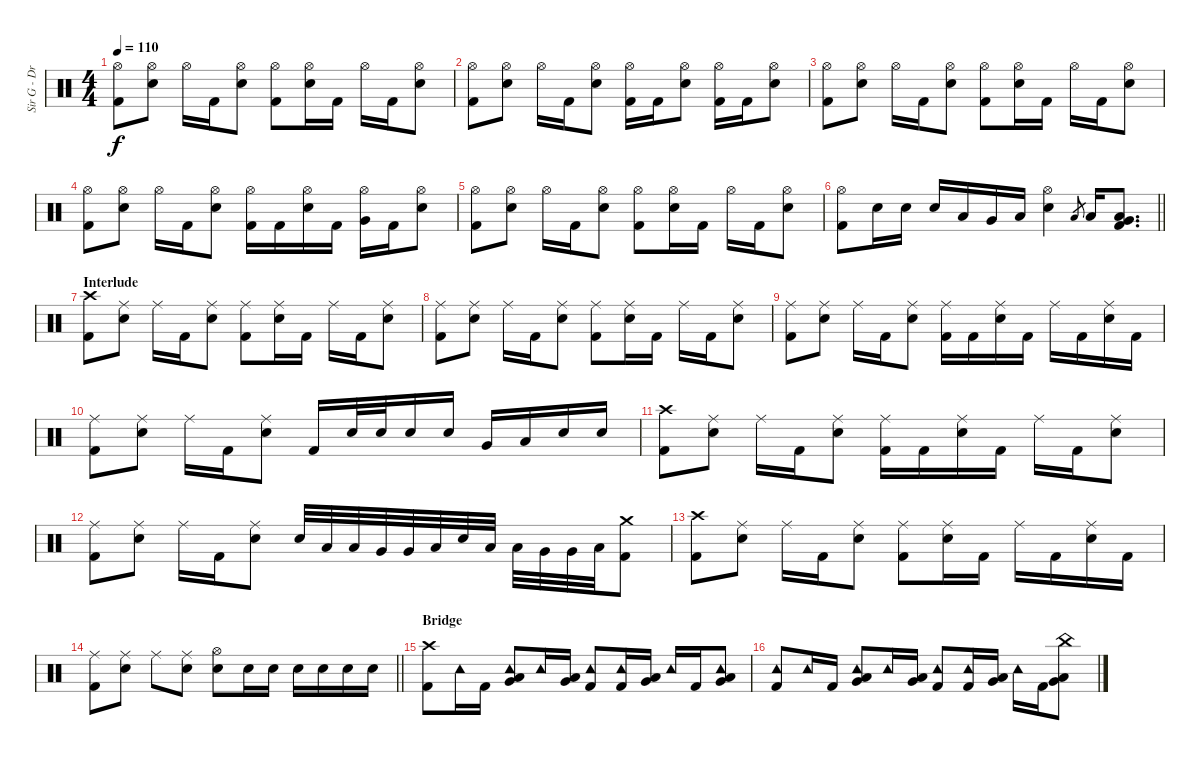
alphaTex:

\track ("Sir G - Drums" "Sir G - Dr") {instrument percussion}
\staff {score}
\articulation defaults
\ts (4 4)
\tempo 110
\clef neutral
\ks c
("Hi-Hat (open)" "Kick (hit) 2").8{dy f} ("Hi-Hat (open)" "Electric Snare (hit)").8 "Hi-Hat (open)".16 "Kick (hit) 2".16 ("Hi-Hat (open)" "Electric Snare (hit)").8 ("Hi-Hat (open)" "Kick (hit) 2").8 ("Hi-Hat (open)" "Electric Snare (hit)").16 "Kick (hit) 2".16 "Hi-Hat (open)".16 "Kick (hit) 2".16 ("Hi-Hat (open)" "Electric Snare (hit)").8 |
("Hi-Hat (open)" "Kick (hit) 2").8 ("Hi-Hat (open)" "Electric Snare (hit)").8 "Hi-Hat (open)".16 "Kick (hit) 2".16 ("Hi-Hat (open)" "Electric Snare (hit)").8 ("Hi-Hat (open)" "Kick (hit) 2").16 "Kick (hit) 2".16 ("Hi-Hat (open)" "Electric Snare (hit)").8 ("Hi-Hat (open)" "Kick (hit) 2").16 "Kick (hit) 2".16 ("Hi-Hat (open)" "Electric Snare (hit)").8 |
("Hi-Hat (open)" "Kick (hit) 2").8 ("Hi-Hat (open)" "Electric Snare (hit)").8 "Hi-Hat (open)".16 "Kick (hit) 2".16 ("Hi-Hat (open)" "Electric Snare (hit)").8 ("Hi-Hat (open)" "Kick (hit) 2").8 ("Hi-Hat (open)" "Electric Snare (hit)").16 "Kick (hit) 2".16 "Hi-Hat (open)".16 "Kick (hit) 2".16 ("Hi-Hat (open)" "Electric Snare (hit)").8 |
("Hi-Hat (open)" "Kick (hit) 2").8 ("Hi-Hat (open)" "Electric Snare (hit)").8 "Hi-Hat (open)".16 "Kick (hit) 2".16 ("Hi-Hat (open)" "Electric Snare (hit)").8 ("Hi-Hat (open)" "Kick (hit) 2").16 "Kick (hit) 2".16 ("Hi-Hat (open)" "Electric Snare (hit)").16 "Kick (hit) 2".16 ("Hi-Hat (open)" "Very Low Tom (hit)").16 "Kick (hit) 2".16 ("Hi-Hat (open)" "Electric Snare (hit)").8 |
("Hi-Hat (open)" "Kick (hit) 2").8 ("Hi-Hat (open)" "Electric Snare (hit)").8 "Hi-Hat (open)".16 "Kick (hit) 2".16 ("Hi-Hat (open)" "Electric Snare (hit)").8 ("Hi-Hat (open)" "Kick (hit) 2").8 ("Hi-Hat (open)" "Electric Snare (hit)").16 "Kick (hit) 2".16 "Hi-Hat (open)".16 "Kick (hit) 2".16 ("Hi-Hat (open)" "Electric Snare (hit)").8 |
\barLineRight lightlight
("Hi-Hat (open)" "Kick (hit) 2").8 "Electric Snare (hit)".16 "Electric Snare (hit)".16 "Electric Snare (hit)".16 "Low Tom (hit)".16 "Very Low Tom (hit)".16 "Low Floor Tom (hit)".16 ("Hi-Hat (open)" "Electric Snare (hit)").4 "Low Tom (hit)".8{gr} "Low Tom (hit)".16 ("Very Low Tom (hit)" "Low Floor Tom (hit)" "Kick (hit) 2").8{d} |
\section ("" "Interlude")
("Crash high (hit)" "Kick (hit) 2").8 ("Ride (middle)" "Electric Snare (hit)").8 "Ride (middle)".16 "Kick (hit) 2".16 ("Ride (middle)" "Electric Snare (hit)").8 ("Ride (middle)" "Kick (hit) 2").8 ("Ride (middle)" "Electric Snare (hit)").16 "Kick (hit) 2".16 "Ride (middle)".16 "Kick (hit) 2".16 ("Ride (middle)" "Electric Snare (hit)").8 |
("Ride (middle)" "Kick (hit) 2").8 ("Ride (middle)" "Electric Snare (hit)").8 "Ride (middle)".16 "Kick (hit) 2".16 ("Ride (middle)" "Electric Snare (hit)").8 ("Ride (middle)" "Kick (hit) 2").8 ("Ride (middle)" "Electric Snare (hit)").16 "Kick (hit) 2".16 "Ride (middle)".16 "Kick (hit) 2".16 ("Ride (middle)" "Electric Snare (hit)").8 |
("Ride (middle)" "Kick (hit) 2").8 ("Ride (middle)" "Electric Snare (hit)").8 "Ride (middle)".16 "Kick (hit) 2".16 ("Ride (middle)" "Electric Snare (hit)").8 ("Ride (middle)" "Kick (hit) 2").16 "Kick (hit) 2".16 ("Ride (middle)" "Electric Snare (hit)").16 "Kick (hit) 2".16 "Ride (middle)".16 "Kick (hit) 2".16 ("Ride (middle)" "Electric Snare (hit)").16 "Kick (hit) 2".16 |
("Ride (middle)" "Kick (hit) 2").8 ("Ride (middle)" "Electric Snare (hit)").8 "Ride (middle)".16 "Kick (hit) 2".16 ("Ride (middle)" "Electric Snare (hit)").8 "Kick (hit) 2".16 "Electric Snare (hit)".32 "Electric Snare (hit)".32 "Electric Snare (hit)".16 "Electric Snare (hit)".16 "Very Low Tom (hit)".16 "Low Floor Tom (hit)".16 "Electric Snare (hit)".16 "Electric Snare (hit)".16 |
("Crash high (hit)" "Kick (hit) 2").8 ("Ride (middle)" "Electric Snare (hit)").8 "Ride (middle)".16 "Kick (hit) 2".16 ("Ride (middle)" "Electric Snare (hit)").8 ("Ride (middle)" "Kick (hit) 2").16 "Kick (hit) 2".16 ("Ride (middle)" "Electric Snare (hit)").16 "Kick (hit) 2".16 "Ride (middle)".16 "Kick (hit) 2".16 ("Ride (middle)" "Electric Snare (hit)").8 |
("Ride (middle)" "Kick (hit) 2").8 ("Ride (middle)" "Electric Snare (hit)").8 "Ride (middle)".16 "Kick (hit) 2".16 ("Ride (middle)" "Electric Snare (hit)").8 "Electric Snare (hit)".32 "Low Tom (hit)".32 "Low Tom (hit)".32 "Very Low Tom (hit)".32 "Very Low Tom (hit)".32 "Low Floor Tom (hit)".32 "Electric Snare (hit)".32 "Low Tom (hit)".32 "Low Tom (hit)".32 "Very Low Tom (hit)".32 "Very Low Tom (hit)".32 "Low Floor Tom (hit)".32 ("Crash medium (hit)" "Kick (hit) 2").8 |
("Crash high (hit)" "Kick (hit) 2").8 ("Ride (middle)" "Electric Snare (hit)").8 "Ride (middle)".16 "Kick (hit) 2".16 ("Ride (middle)" "Electric Snare (hit)").8 ("Ride (middle)" "Kick (hit) 2").8 ("Ride (middle)" "Electric Snare (hit)").16 "Kick (hit) 2".16 "Ride (middle)".16 "Kick (hit) 2".16 ("Ride (middle)" "Electric Snare (hit)").16 "Kick (hit) 2".16 |
\barLineRight lightlight
("Ride (middle)" "Kick (hit) 2").8 ("Ride (middle)" "Electric Snare (hit)").8 "Ride (middle)".8 ("Ride (middle)" "Electric Snare (hit)").8 ("Hi-Hat (open)" "Electric Snare (hit)").8 "Electric Snare (hit)".16 "Electric Snare (hit)".16 "Electric Snare (hit)".16 "Electric Snare (hit)".16 "Electric Snare (hit)".16 "Electric Snare (hit)".16 |
\section ("" "Bridge")
("Crash high (hit)" "Kick (hit) 2").8 "Tambourine (hit)".16 "Kick (hit) 2".16 ("Tambourine (hit)" "Very Low Tom (hit)" "Low Floor Tom (hit)").8 "Tambourine (hit)".16 ("Very Low Tom (hit)" "Low Floor Tom (hit)").16 ("Tambourine (hit)" "Kick (hit) 2").8 ("Tambourine (hit)" "Kick (hit) 2").16 ("Very Low Tom (hit)" "Low Floor Tom (hit)").16 "Tambourine (hit)".16 "Kick (hit) 2".16 ("Tambourine (hit)" "Very Low Tom (hit)" "Low Floor Tom (hit)").8 |
("Tambourine (hit)" "Kick (hit) 2").8 "Tambourine (hit)".16 "Kick (hit) 2".16 ("Tambourine (hit)" "Very Low Tom (hit)" "Low Floor Tom (hit)").8 "Tambourine (hit)".16 ("Very Low Tom (hit)" "Low Floor Tom (hit)").16 ("Tambourine (hit)" "Kick (hit) 2").8 ("Tambourine (hit)" "Kick (hit) 2").16 ("Very Low Tom (hit)" "Low Floor Tom (hit)").16 "Tambourine (hit)".16 "Kick (hit) 2".16 ("China (hit)" "Very Low Tom (hit)" "Low Floor Tom (hit)").8
